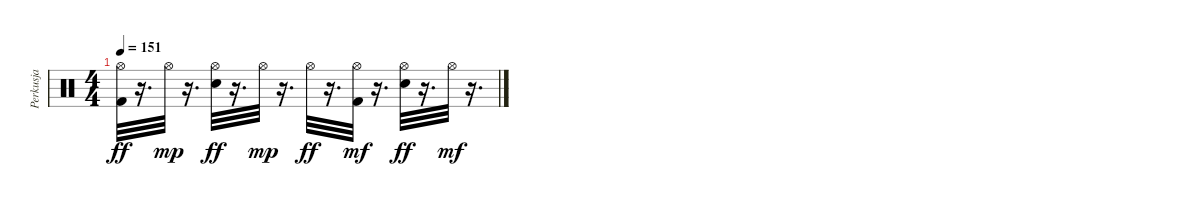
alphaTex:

\track ("Perkusja" "Perkusja") {instrument percussion}
\staff {score}
\articulation defaults
\ts (4 4)
\tempo 151
\clef neutral
\ks c
("Kick (hit) 2" "Hi-Hat (open)").32{dy ff} r.16{d} "Hi-Hat (open)".32{dy mp} r.16{d} ("Snare (hit) 2" "Hi-Hat (open)").32{dy ff} r.16{d} "Hi-Hat (open)".32{dy mp} r.16{d} "Hi-Hat (open)".32{dy ff} r.16{d} ("Kick (hit) 2" "Hi-Hat (open)").32{dy mf} r.16{d} ("Snare (hit) 2" "Hi-Hat (open)").32{dy ff} r.16{d} "Hi-Hat (open)".32{dy mf} r.16{d}
